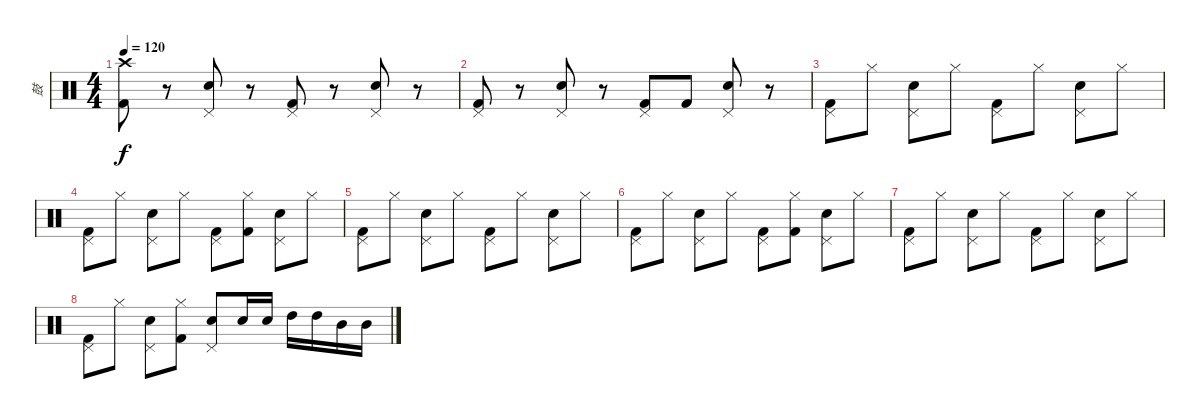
\track ("鼓" "鼓") {instrument percussion}
\staff {score}
\articulation defaults
\ts (4 4)
\tempo 120
\clef neutral
\ks c
("Crash high (hit)" "Kick (hit) 2").8{dy f} r.8 ("Pedal Hi-Hat (hit)" "Electric Snare (hit)").8 r.8 ("Pedal Hi-Hat (hit)" "Kick (hit) 2").8 r.8 ("Pedal Hi-Hat (hit)" "Electric Snare (hit)").8 r.8 |
("Pedal Hi-Hat (hit)" "Kick (hit) 2").8 r.8 ("Pedal Hi-Hat (hit)" "Electric Snare (hit)").8 r.8 ("Pedal Hi-Hat (hit)" "Kick (hit) 2").8 "Kick (hit) 2".8 ("Pedal Hi-Hat (hit)" "Electric Snare (hit)").8 r.8 |
("Pedal Hi-Hat (hit)" "Kick (hit) 2").8 "Hi-Hat (closed)".8 ("Pedal Hi-Hat (hit)" "Electric Snare (hit)").8 "Hi-Hat (closed)".8 ("Pedal Hi-Hat (hit)" "Kick (hit) 2").8 "Hi-Hat (closed)".8 ("Pedal Hi-Hat (hit)" "Electric Snare (hit)").8 "Hi-Hat (closed)".8 |
("Pedal Hi-Hat (hit)" "Kick (hit) 2").8 "Hi-Hat (closed)".8 ("Pedal Hi-Hat (hit)" "Electric Snare (hit)").8 "Hi-Hat (closed)".8 ("Pedal Hi-Hat (hit)" "Kick (hit) 2").8 ("Hi-Hat (closed)" "Kick (hit) 2").8 ("Pedal Hi-Hat (hit)" "Electric Snare (hit)").8 "Hi-Hat (closed)".8 |
("Pedal Hi-Hat (hit)" "Kick (hit) 2").8 "Hi-Hat (closed)".8 ("Pedal Hi-Hat (hit)" "Electric Snare (hit)").8 "Hi-Hat (closed)".8 ("Pedal Hi-Hat (hit)" "Kick (hit) 2").8 "Hi-Hat (closed)".8 ("Pedal Hi-Hat (hit)" "Electric Snare (hit)").8 "Hi-Hat (closed)".8 |
("Pedal Hi-Hat (hit)" "Kick (hit) 2").8 "Hi-Hat (closed)".8 ("Pedal Hi-Hat (hit)" "Electric Snare (hit)").8 "Hi-Hat (closed)".8 ("Pedal Hi-Hat (hit)" "Kick (hit) 2").8 ("Hi-Hat (closed)" "Kick (hit) 2").8 ("Pedal Hi-Hat (hit)" "Electric Snare (hit)").8 "Hi-Hat (closed)".8 |
("Pedal Hi-Hat (hit)" "Kick (hit) 2").8 "Hi-Hat (closed)".8 ("Pedal Hi-Hat (hit)" "Electric Snare (hit)").8 "Hi-Hat (closed)".8 ("Pedal Hi-Hat (hit)" "Kick (hit) 2").8 "Hi-Hat (closed)".8 ("Pedal Hi-Hat (hit)" "Electric Snare (hit)").8 "Hi-Hat (closed)".8 |
("Pedal Hi-Hat (hit)" "Kick (hit) 2").8 "Hi-Hat (closed)".8 ("Pedal Hi-Hat (hit)" "Electric Snare (hit)").8 ("Hi-Hat (closed)" "Kick (hit) 2").8 ("Pedal Hi-Hat (hit)" "Electric Snare (hit)").8 "Electric Snare (hit)".16 "Electric Snare (hit)".16 "High Tom (hit)".16 "High Tom (hit)".16 "Mid Tom (hit)".16 "Mid Tom (hit)".16
